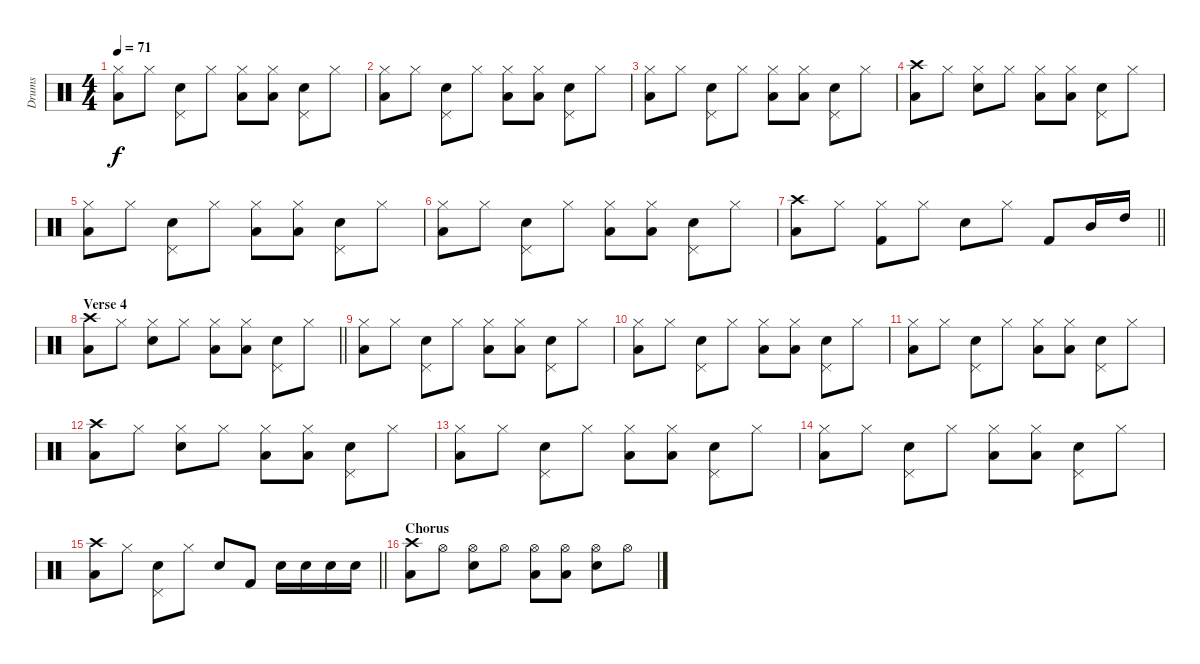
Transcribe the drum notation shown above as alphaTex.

\track ("Drums" "Drums") {instrument percussion}
\staff {score}
\articulation defaults
\ts (4 4)
\section ("" "")
\tempo 71
\clef neutral
\ks c
("Low Floor Tom (hit)" "Hi-Hat (closed)").8{dy f} "Hi-Hat (closed)".8 ("Pedal Hi-Hat (hit)" "Snare (hit) 2").8 "Hi-Hat (closed)".8 ("Low Floor Tom (hit)" "Hi-Hat (closed)").8 ("Hi-Hat (closed)" "Low Floor Tom (hit)").8 ("Pedal Hi-Hat (hit)" "Snare (hit) 2").8 "Hi-Hat (closed)".8 |
("Low Floor Tom (hit)" "Hi-Hat (closed)").8 "Hi-Hat (closed)".8 ("Pedal Hi-Hat (hit)" "Snare (hit) 2").8 "Hi-Hat (closed)".8 ("Hi-Hat (closed)" "Low Floor Tom (hit)").8 ("Hi-Hat (closed)" "Low Floor Tom (hit)").8 ("Pedal Hi-Hat (hit)" "Snare (hit) 2").8 "Hi-Hat (closed)".8 |
("Low Floor Tom (hit)" "Hi-Hat (closed)").8 "Hi-Hat (closed)".8 ("Pedal Hi-Hat (hit)" "Snare (hit) 2").8 "Hi-Hat (closed)".8 ("Hi-Hat (closed)" "Low Floor Tom (hit)").8 ("Hi-Hat (closed)" "Low Floor Tom (hit)").8 ("Pedal Hi-Hat (hit)" "Snare (hit) 2").8 "Hi-Hat (closed)".8 |
("Crash high (hit)" "Low Floor Tom (hit)").8 "Hi-Hat (closed)".8 ("Hi-Hat (closed)" "Snare (hit) 2").8 "Hi-Hat (closed)".8 ("Low Floor Tom (hit)" "Hi-Hat (closed)").8 ("Hi-Hat (closed)" "Low Floor Tom (hit)").8 ("Pedal Hi-Hat (hit)" "Snare (hit) 2").8 "Hi-Hat (closed)".8 |
("Low Floor Tom (hit)" "Hi-Hat (closed)").8 "Hi-Hat (closed)".8 ("Pedal Hi-Hat (hit)" "Snare (hit) 2").8 "Hi-Hat (closed)".8 ("Hi-Hat (closed)" "Low Floor Tom (hit)").8 ("Hi-Hat (closed)" "Low Floor Tom (hit)").8 ("Pedal Hi-Hat (hit)" "Snare (hit) 2").8 "Hi-Hat (closed)".8 |
("Low Floor Tom (hit)" "Hi-Hat (closed)").8 "Hi-Hat (closed)".8 ("Pedal Hi-Hat (hit)" "Snare (hit) 2").8 "Hi-Hat (closed)".8 ("Hi-Hat (closed)" "Low Floor Tom (hit)").8 ("Hi-Hat (closed)" "Low Floor Tom (hit)").8 ("Pedal Hi-Hat (hit)" "Snare (hit) 2").8 "Hi-Hat (closed)".8 |
\barLineRight lightlight
("Crash high (hit)" "Low Floor Tom (hit)").8 "Hi-Hat (closed)".8 ("Kick (hit) 2" "Hi-Hat (closed)").8 "Hi-Hat (closed)".8 "Snare (hit) 2".8 "Hi-Hat (closed)".8 "Kick (hit) 2".8 "Mid Tom (hit)".16 "High Tom (hit)".16 |
\section ("" "Verse 4")
\barLineRight lightlight
("Crash high (hit)" "Low Floor Tom (hit)").8 "Hi-Hat (closed)".8 ("Hi-Hat (closed)" "Snare (hit) 2").8 "Hi-Hat (closed)".8 ("Low Floor Tom (hit)" "Hi-Hat (closed)").8 ("Hi-Hat (closed)" "Low Floor Tom (hit)").8 ("Pedal Hi-Hat (hit)" "Snare (hit) 2").8 "Hi-Hat (closed)".8 |
\section ("" "")
("Low Floor Tom (hit)" "Hi-Hat (closed)").8 "Hi-Hat (closed)".8 ("Pedal Hi-Hat (hit)" "Snare (hit) 2").8 "Hi-Hat (closed)".8 ("Low Floor Tom (hit)" "Hi-Hat (closed)").8 ("Hi-Hat (closed)" "Low Floor Tom (hit)").8 ("Pedal Hi-Hat (hit)" "Snare (hit) 2").8 "Hi-Hat (closed)".8 |
("Low Floor Tom (hit)" "Hi-Hat (closed)").8 "Hi-Hat (closed)".8 ("Pedal Hi-Hat (hit)" "Snare (hit) 2").8 "Hi-Hat (closed)".8 ("Hi-Hat (closed)" "Low Floor Tom (hit)").8 ("Hi-Hat (closed)" "Low Floor Tom (hit)").8 ("Pedal Hi-Hat (hit)" "Snare (hit) 2").8 "Hi-Hat (closed)".8 |
("Low Floor Tom (hit)" "Hi-Hat (closed)").8 "Hi-Hat (closed)".8 ("Pedal Hi-Hat (hit)" "Snare (hit) 2").8 "Hi-Hat (closed)".8 ("Hi-Hat (closed)" "Low Floor Tom (hit)").8 ("Hi-Hat (closed)" "Low Floor Tom (hit)").8 ("Pedal Hi-Hat (hit)" "Snare (hit) 2").8 "Hi-Hat (closed)".8 |
("Crash high (hit)" "Low Floor Tom (hit)").8 "Hi-Hat (closed)".8 ("Hi-Hat (closed)" "Snare (hit) 2").8 "Hi-Hat (closed)".8 ("Low Floor Tom (hit)" "Hi-Hat (closed)").8 ("Hi-Hat (closed)" "Low Floor Tom (hit)").8 ("Pedal Hi-Hat (hit)" "Snare (hit) 2").8 "Hi-Hat (closed)".8 |
("Low Floor Tom (hit)" "Hi-Hat (closed)").8 "Hi-Hat (closed)".8 ("Pedal Hi-Hat (hit)" "Snare (hit) 2").8 "Hi-Hat (closed)".8 ("Hi-Hat (closed)" "Low Floor Tom (hit)").8 ("Hi-Hat (closed)" "Low Floor Tom (hit)").8 ("Pedal Hi-Hat (hit)" "Snare (hit) 2").8 "Hi-Hat (closed)".8 |
("Low Floor Tom (hit)" "Hi-Hat (closed)").8 "Hi-Hat (closed)".8 ("Pedal Hi-Hat (hit)" "Snare (hit) 2").8 "Hi-Hat (closed)".8 ("Hi-Hat (closed)" "Low Floor Tom (hit)").8 ("Hi-Hat (closed)" "Low Floor Tom (hit)").8 ("Pedal Hi-Hat (hit)" "Snare (hit) 2").8 "Hi-Hat (closed)".8 |
\barLineRight lightlight
("Crash high (hit)" "Low Floor Tom (hit)").8 "Hi-Hat (closed)".8 ("Pedal Hi-Hat (hit)" "Snare (hit) 2").8 "Hi-Hat (closed)".8 "Snare (hit) 2".8 "Kick (hit) 2".8 "Snare (hit) 2".16 "Snare (hit) 2".16 "Snare (hit) 2".16 "Snare (hit) 2".16 |
\section ("" "Chorus")
("Crash high (hit)" "Low Floor Tom (hit)").8 "Hi-Hat (open)".8 ("Hi-Hat (open)" "Snare (hit) 2").8 "Hi-Hat (open)".8 ("Hi-Hat (open)" "Low Floor Tom (hit)").8 ("Hi-Hat (open)" "Low Floor Tom (hit)").8 ("Hi-Hat (open)" "Snare (hit) 2").8 "Hi-Hat (open)".8
